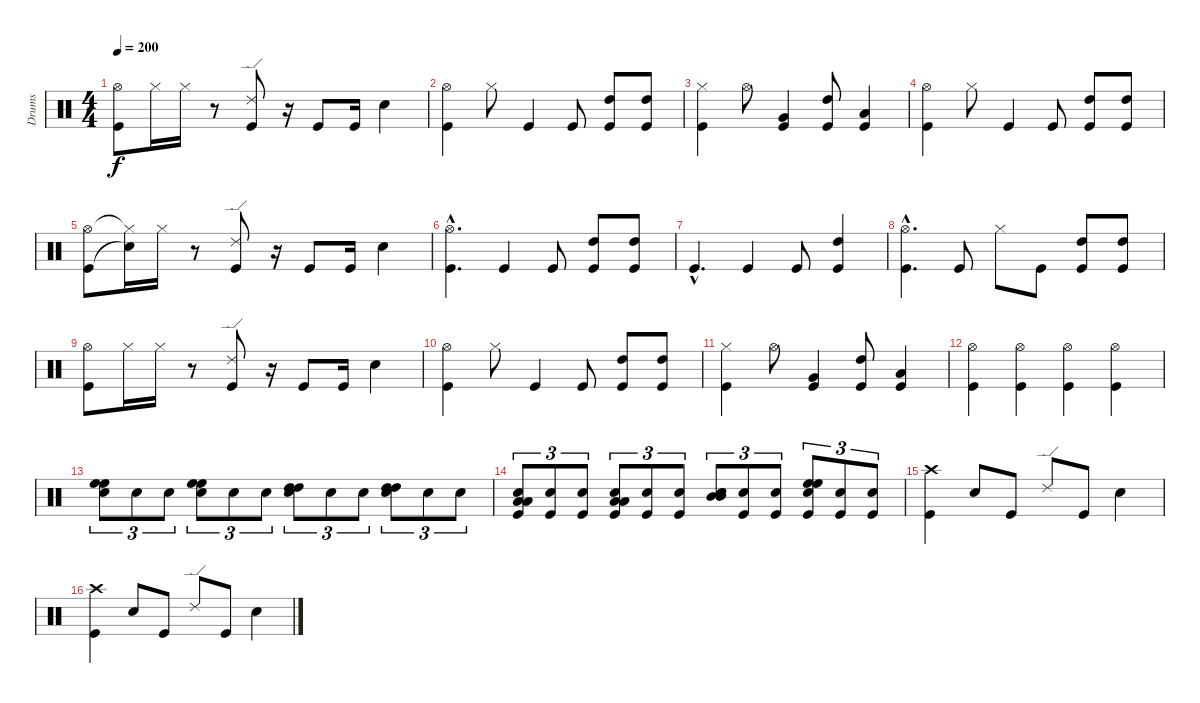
\track ("Drums" "Drums") {instrument percussion}
\staff {score}
\articulation defaults
\ts (4 4)
\tempo 200
\clef neutral
\ks c
("Hi-Hat (open)" "Kick (hit)").8{dy f} "Hi-Hat (closed)".16 "Hi-Hat (closed)".16 r.8 ("Ride (edge) 2" "Kick (hit)").8 r.16 "Kick (hit)".8 "Kick (hit)".16 "Snare (hit) 2".4 |
("Hi-Hat (open)" "Kick (hit)").4 "Hi-Hat (closed)".8 "Kick (hit)".4 "Kick (hit)".8 ("High Tom (hit)" "Kick (hit)").8 ("High Tom (hit)" "Kick (hit)").8 |
("Hi-Hat (closed)" "Kick (hit)").4 "Hi-Hat (open)".8 ("Very Low Tom (hit)" "Kick (hit)").4 ("High Tom (hit)" "Kick (hit)").8 ("Low Tom (hit)" "Kick (hit)").4 |
("Hi-Hat (open)" "Kick (hit)").4 "Hi-Hat (closed)".8 "Kick (hit)".4 "Kick (hit)".8 ("High Tom (hit)" "Kick (hit)").8 ("High Tom (hit)" "Kick (hit)").8 |
("Hi-Hat (open)" "Kick (hit)").8 ("Hi-Hat (closed)"{t} "Snare (hit)"{t}).16 "Hi-Hat (closed)".16 r.8 ("Ride (edge) 2" "Kick (hit)").8 r.16 "Kick (hit)".8 "Kick (hit)".16 "Snare (hit) 2".4 |
("Hi-Hat (open)"{hac} "Kick (hit)"{hac}).4{d} "Kick (hit)".4 "Kick (hit)".8 ("High Tom (hit)" "Kick (hit)").8 ("High Tom (hit)" "Kick (hit)").8 |
"Kick (hit)"{hac}.4{d} "Kick (hit)".4 "Kick (hit)".8 ("High Tom (hit)" "Kick (hit)").4 |
("Hi-Hat (open)"{hac} "Kick (hit)"{hac}).4{d} "Kick (hit)".8 "Hi-Hat (closed)".8 "Kick (hit)".8 ("High Tom (hit)" "Kick (hit)").8 ("High Tom (hit)" "Kick (hit)").8 |
("Hi-Hat (open)" "Kick (hit)").8 "Hi-Hat (closed)".16 "Hi-Hat (closed)".16 r.8 ("Ride (edge) 2" "Kick (hit)").8 r.16 "Kick (hit)".8 "Kick (hit)".16 "Snare (hit) 2".4 |
("Hi-Hat (open)" "Kick (hit)").4 "Hi-Hat (closed)".8 "Kick (hit)".4 "Kick (hit)".8 ("High Tom (hit)" "Kick (hit)").8 ("High Tom (hit)" "Kick (hit)").8 |
("Hi-Hat (closed)" "Kick (hit)").4 "Hi-Hat (open)".8 ("Very Low Tom (hit)" "Kick (hit)").4 ("High Tom (hit)" "Kick (hit)").8 ("Low Tom (hit)" "Kick (hit)").4 |
("Hi-Hat (open)" "Kick (hit)").4 ("Hi-Hat (open)" "Kick (hit)").4 ("Hi-Hat (open)" "Kick (hit)").4 ("Hi-Hat (open)" "Kick (hit)").4 |
("Snare (hit) 2" "High Floor Tom (hit)" "High Floor Tom (hit)").8{tu (3 2)} "Snare (hit) 2".8{tu (3 2)} "Snare (hit) 2".8{tu (3 2)} ("Snare (hit) 2" "High Floor Tom (hit)" "High Floor Tom (hit)").8{tu (3 2)} "Snare (hit) 2".8{tu (3 2)} "Snare (hit) 2".8{tu (3 2)} ("Snare (hit) 2" "High Tom (hit)" "High Tom (hit)").8{tu (3 2)} "Snare (hit) 2".8{tu (3 2)} "Snare (hit) 2".8{tu (3 2)} ("Snare (hit) 2" "High Tom (hit)" "High Tom (hit)").8{tu (3 2)} "Snare (hit) 2".8{tu (3 2)} "Snare (hit) 2".8{tu (3 2)} |
("Snare (hit) 2" "Low Tom (hit)" "Low Tom (hit)" "Kick (hit)").8{tu (3 2)} ("Snare (hit) 2" "Kick (hit)").8{tu (3 2)} ("Snare (hit) 2" "Kick (hit)").8{tu (3 2)} ("Snare (hit) 2" "Low Tom (hit)" "Low Tom (hit)" "Kick (hit)").8{tu (3 2)} ("Snare (hit) 2" "Kick (hit)").8{tu (3 2)} ("Snare (hit) 2" "Kick (hit)").8{tu (3 2)} ("Snare (hit) 2" "Mid Tom (hit)" "Mid Tom (hit)" "Snare (hit)").8{tu (3 2)} ("Snare (hit) 2" "Kick (hit)").8{tu (3 2)} ("Snare (hit) 2" "Kick (hit)").8{tu (3 2)} ("Snare (hit) 2" "High Floor Tom (hit)" "High Floor Tom (hit)" "Kick (hit)").8{tu (3 2)} ("Snare (hit) 2" "Kick (hit)").8{tu (3 2)} ("Snare (hit) 2" "Kick (hit)").8{tu (3 2)} |
("Crash high (hit)" "Kick (hit)").4 "Snare (hit) 2".8 "Kick (hit)".8 "Ride (edge) 2".8 "Kick (hit)".8 "Snare (hit) 2".4 |
("Crash high (hit)" "Kick (hit)").4 "Snare (hit) 2".8 "Kick (hit)".8 "Ride (edge) 2".8 "Kick (hit)".8 "Snare (hit) 2".4
